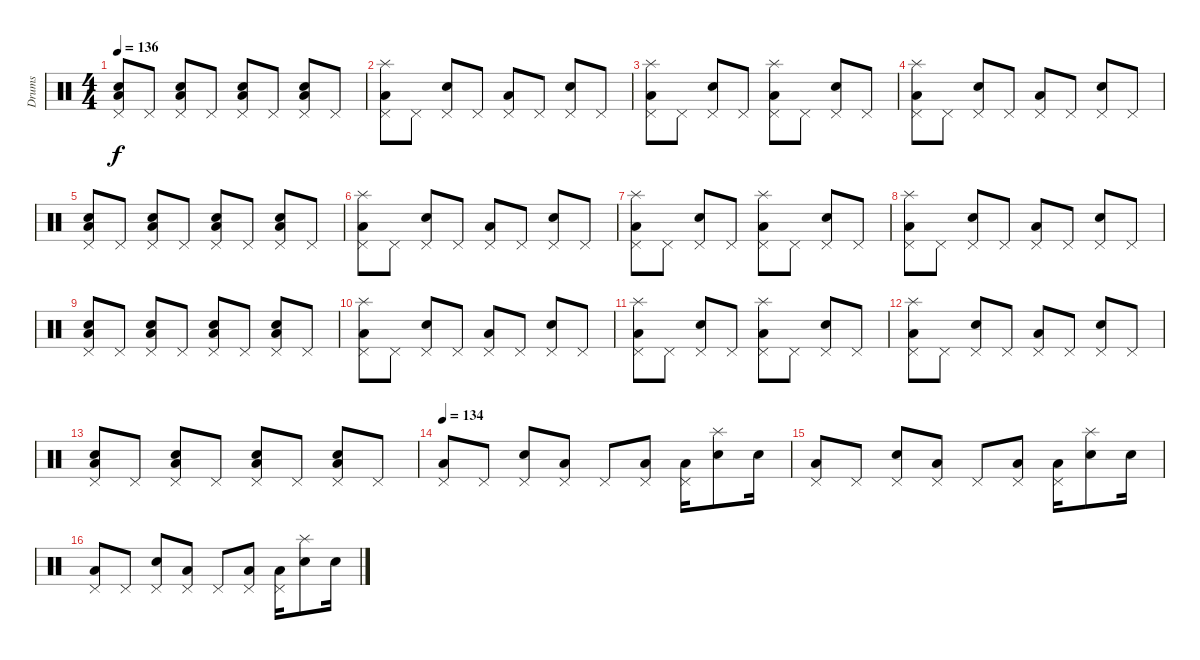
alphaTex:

\track ("Drums" "Drums") {instrument percussion}
\staff {score}
\articulation defaults
\ts (4 4)
\tempo 136
\clef neutral
\ks c
("Electric Snare (hit)" "Low Floor Tom (hit)" "Pedal Hi-Hat (hit)").8{dy f} "Pedal Hi-Hat (hit)".8 ("Electric Snare (hit)" "Low Floor Tom (hit)" "Pedal Hi-Hat (hit)").8 "Pedal Hi-Hat (hit)".8 ("Electric Snare (hit)" "Low Floor Tom (hit)" "Pedal Hi-Hat (hit)").8 "Pedal Hi-Hat (hit)".8 ("Electric Snare (hit)" "Low Floor Tom (hit)" "Pedal Hi-Hat (hit)").8 "Pedal Hi-Hat (hit)".8 |
("Low Floor Tom (hit)" "Pedal Hi-Hat (hit)" "Splash (hit)").8 "Pedal Hi-Hat (hit)".8 ("Electric Snare (hit)" "Pedal Hi-Hat (hit)").8 "Pedal Hi-Hat (hit)".8 ("Low Floor Tom (hit)" "Pedal Hi-Hat (hit)").8 "Pedal Hi-Hat (hit)".8 ("Electric Snare (hit)" "Pedal Hi-Hat (hit)").8 "Pedal Hi-Hat (hit)".8 |
("Low Floor Tom (hit)" "Pedal Hi-Hat (hit)" "Splash (hit)").8 "Pedal Hi-Hat (hit)".8 ("Electric Snare (hit)" "Pedal Hi-Hat (hit)").8 "Pedal Hi-Hat (hit)".8 ("Low Floor Tom (hit)" "Pedal Hi-Hat (hit)" "Splash (hit)").8 "Pedal Hi-Hat (hit)".8 ("Electric Snare (hit)" "Pedal Hi-Hat (hit)").8 "Pedal Hi-Hat (hit)".8 |
("Low Floor Tom (hit)" "Pedal Hi-Hat (hit)" "Splash (hit)").8 "Pedal Hi-Hat (hit)".8 ("Electric Snare (hit)" "Pedal Hi-Hat (hit)").8 "Pedal Hi-Hat (hit)".8 ("Low Floor Tom (hit)" "Pedal Hi-Hat (hit)").8 "Pedal Hi-Hat (hit)".8 ("Electric Snare (hit)" "Pedal Hi-Hat (hit)").8 "Pedal Hi-Hat (hit)".8 |
("Electric Snare (hit)" "Low Floor Tom (hit)" "Pedal Hi-Hat (hit)").8 "Pedal Hi-Hat (hit)".8 ("Electric Snare (hit)" "Low Floor Tom (hit)" "Pedal Hi-Hat (hit)").8 "Pedal Hi-Hat (hit)".8 ("Electric Snare (hit)" "Low Floor Tom (hit)" "Pedal Hi-Hat (hit)").8 "Pedal Hi-Hat (hit)".8 ("Electric Snare (hit)" "Low Floor Tom (hit)" "Pedal Hi-Hat (hit)").8 "Pedal Hi-Hat (hit)".8 |
("Low Floor Tom (hit)" "Pedal Hi-Hat (hit)" "Splash (hit)").8 "Pedal Hi-Hat (hit)".8 ("Electric Snare (hit)" "Pedal Hi-Hat (hit)").8 "Pedal Hi-Hat (hit)".8 ("Low Floor Tom (hit)" "Pedal Hi-Hat (hit)").8 "Pedal Hi-Hat (hit)".8 ("Electric Snare (hit)" "Pedal Hi-Hat (hit)").8 "Pedal Hi-Hat (hit)".8 |
("Low Floor Tom (hit)" "Pedal Hi-Hat (hit)" "Splash (hit)").8 "Pedal Hi-Hat (hit)".8 ("Electric Snare (hit)" "Pedal Hi-Hat (hit)").8 "Pedal Hi-Hat (hit)".8 ("Low Floor Tom (hit)" "Pedal Hi-Hat (hit)" "Splash (hit)").8 "Pedal Hi-Hat (hit)".8 ("Electric Snare (hit)" "Pedal Hi-Hat (hit)").8 "Pedal Hi-Hat (hit)".8 |
("Low Floor Tom (hit)" "Pedal Hi-Hat (hit)" "Splash (hit)").8 "Pedal Hi-Hat (hit)".8 ("Electric Snare (hit)" "Pedal Hi-Hat (hit)").8 "Pedal Hi-Hat (hit)".8 ("Low Floor Tom (hit)" "Pedal Hi-Hat (hit)").8 "Pedal Hi-Hat (hit)".8 ("Electric Snare (hit)" "Pedal Hi-Hat (hit)").8 "Pedal Hi-Hat (hit)".8 |
("Electric Snare (hit)" "Low Floor Tom (hit)" "Pedal Hi-Hat (hit)").8 "Pedal Hi-Hat (hit)".8 ("Electric Snare (hit)" "Low Floor Tom (hit)" "Pedal Hi-Hat (hit)").8 "Pedal Hi-Hat (hit)".8 ("Electric Snare (hit)" "Low Floor Tom (hit)" "Pedal Hi-Hat (hit)").8 "Pedal Hi-Hat (hit)".8 ("Electric Snare (hit)" "Low Floor Tom (hit)" "Pedal Hi-Hat (hit)").8 "Pedal Hi-Hat (hit)".8 |
("Low Floor Tom (hit)" "Pedal Hi-Hat (hit)" "Splash (hit)").8 "Pedal Hi-Hat (hit)".8 ("Electric Snare (hit)" "Pedal Hi-Hat (hit)").8 "Pedal Hi-Hat (hit)".8 ("Low Floor Tom (hit)" "Pedal Hi-Hat (hit)").8 "Pedal Hi-Hat (hit)".8 ("Electric Snare (hit)" "Pedal Hi-Hat (hit)").8 "Pedal Hi-Hat (hit)".8 |
("Low Floor Tom (hit)" "Pedal Hi-Hat (hit)" "Splash (hit)").8 "Pedal Hi-Hat (hit)".8 ("Electric Snare (hit)" "Pedal Hi-Hat (hit)").8 "Pedal Hi-Hat (hit)".8 ("Low Floor Tom (hit)" "Pedal Hi-Hat (hit)" "Splash (hit)").8 "Pedal Hi-Hat (hit)".8 ("Electric Snare (hit)" "Pedal Hi-Hat (hit)").8 "Pedal Hi-Hat (hit)".8 |
("Low Floor Tom (hit)" "Pedal Hi-Hat (hit)" "Splash (hit)").8 "Pedal Hi-Hat (hit)".8 ("Electric Snare (hit)" "Pedal Hi-Hat (hit)").8 "Pedal Hi-Hat (hit)".8 ("Low Floor Tom (hit)" "Pedal Hi-Hat (hit)").8 "Pedal Hi-Hat (hit)".8 ("Electric Snare (hit)" "Pedal Hi-Hat (hit)").8 "Pedal Hi-Hat (hit)".8 |
("Electric Snare (hit)" "Low Floor Tom (hit)" "Pedal Hi-Hat (hit)").8 "Pedal Hi-Hat (hit)".8 ("Electric Snare (hit)" "Low Floor Tom (hit)" "Pedal Hi-Hat (hit)").8 "Pedal Hi-Hat (hit)".8 ("Electric Snare (hit)" "Low Floor Tom (hit)" "Pedal Hi-Hat (hit)").8 "Pedal Hi-Hat (hit)".8 ("Electric Snare (hit)" "Low Floor Tom (hit)" "Pedal Hi-Hat (hit)").8 "Pedal Hi-Hat (hit)".8 |
\tempo 134
("Low Floor Tom (hit)" "Pedal Hi-Hat (hit)").8 "Pedal Hi-Hat (hit)".8 ("Electric Snare (hit)" "Pedal Hi-Hat (hit)").8 ("Low Floor Tom (hit)" "Pedal Hi-Hat (hit)").8 "Pedal Hi-Hat (hit)".8 ("Low Floor Tom (hit)" "Pedal Hi-Hat (hit)").8 ("Low Floor Tom (hit)" "Pedal Hi-Hat (hit)").16 ("Electric Snare (hit)" "Splash (hit)").8 "Electric Snare (hit)".16 |
("Low Floor Tom (hit)" "Pedal Hi-Hat (hit)").8 "Pedal Hi-Hat (hit)".8 ("Electric Snare (hit)" "Pedal Hi-Hat (hit)").8 ("Low Floor Tom (hit)" "Pedal Hi-Hat (hit)").8 "Pedal Hi-Hat (hit)".8 ("Low Floor Tom (hit)" "Pedal Hi-Hat (hit)").8 ("Low Floor Tom (hit)" "Pedal Hi-Hat (hit)").16 ("Electric Snare (hit)" "Splash (hit)").8 "Electric Snare (hit)".16 |
("Low Floor Tom (hit)" "Pedal Hi-Hat (hit)").8 "Pedal Hi-Hat (hit)".8 ("Electric Snare (hit)" "Pedal Hi-Hat (hit)").8 ("Low Floor Tom (hit)" "Pedal Hi-Hat (hit)").8 "Pedal Hi-Hat (hit)".8 ("Low Floor Tom (hit)" "Pedal Hi-Hat (hit)").8 ("Low Floor Tom (hit)" "Pedal Hi-Hat (hit)").16 ("Electric Snare (hit)" "Splash (hit)").8 "Electric Snare (hit)".16
